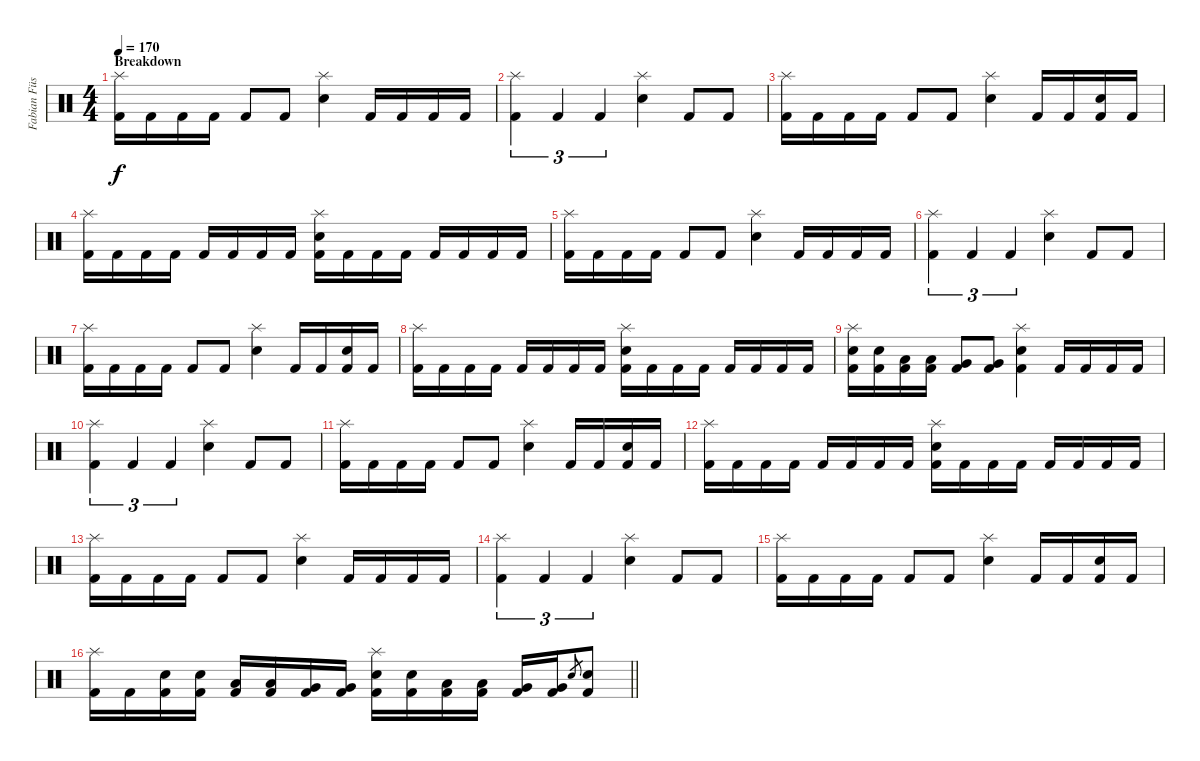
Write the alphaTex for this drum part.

\track ("Fabian Füss" "Fabian Füs") {instrument percussion}
\staff {score}
\articulation defaults
\ts (4 4)
\section ("" "Breakdown")
\tempo 170
\clef neutral
\ks c
("Splash (hit)" "Kick (hit) 2").16{dy f} "Kick (hit) 2".16 "Kick (hit) 2".16 "Kick (hit) 2".16 "Kick (hit) 2".8 "Kick (hit) 2".8 ("Splash (hit)" "Snare (hit) 2").4 "Kick (hit) 2".16 "Kick (hit) 2".16 "Kick (hit) 2".16 "Kick (hit) 2".16 |
("Splash (hit)" "Kick (hit) 2").4{tu (3 2)} "Kick (hit) 2".4{tu (3 2)} "Kick (hit) 2".4{tu (3 2)} ("Splash (hit)" "Snare (hit) 2").4 "Kick (hit) 2".8 "Kick (hit) 2".8 |
("Splash (hit)" "Kick (hit) 2").16 "Kick (hit) 2".16 "Kick (hit) 2".16 "Kick (hit) 2".16 "Kick (hit) 2".8 "Kick (hit) 2".8 ("Splash (hit)" "Snare (hit) 2").4 "Kick (hit) 2".16 "Kick (hit) 2".16 ("Snare (hit) 2" "Kick (hit) 2").16 "Kick (hit) 2".16 |
("Splash (hit)" "Kick (hit) 2").16 "Kick (hit) 2".16 "Kick (hit) 2".16 "Kick (hit) 2".16 "Kick (hit) 2".16 "Kick (hit) 2".16 "Kick (hit) 2".16 "Kick (hit) 2".16 ("Splash (hit)" "Snare (hit) 2" "Kick (hit) 2").16 "Kick (hit) 2".16 "Kick (hit) 2".16 "Kick (hit) 2".16 "Kick (hit) 2".16 "Kick (hit) 2".16 "Kick (hit) 2".16 "Kick (hit) 2".16 |
("Splash (hit)" "Kick (hit) 2").16 "Kick (hit) 2".16 "Kick (hit) 2".16 "Kick (hit) 2".16 "Kick (hit) 2".8 "Kick (hit) 2".8 ("Splash (hit)" "Snare (hit) 2").4 "Kick (hit) 2".16 "Kick (hit) 2".16 "Kick (hit) 2".16 "Kick (hit) 2".16 |
("Splash (hit)" "Kick (hit) 2").4{tu (3 2)} "Kick (hit) 2".4{tu (3 2)} "Kick (hit) 2".4{tu (3 2)} ("Splash (hit)" "Snare (hit) 2").4 "Kick (hit) 2".8 "Kick (hit) 2".8 |
("Splash (hit)" "Kick (hit) 2").16 "Kick (hit) 2".16 "Kick (hit) 2".16 "Kick (hit) 2".16 "Kick (hit) 2".8 "Kick (hit) 2".8 ("Splash (hit)" "Snare (hit) 2").4 "Kick (hit) 2".16 "Kick (hit) 2".16 ("Snare (hit) 2" "Kick (hit) 2").16 "Kick (hit) 2".16 |
("Splash (hit)" "Kick (hit) 2").16 "Kick (hit) 2".16 "Kick (hit) 2".16 "Kick (hit) 2".16 "Kick (hit) 2".16 "Kick (hit) 2".16 "Kick (hit) 2".16 "Kick (hit) 2".16 ("Splash (hit)" "Snare (hit) 2" "Kick (hit) 2").16 "Kick (hit) 2".16 "Kick (hit) 2".16 "Kick (hit) 2".16 "Kick (hit) 2".16 "Kick (hit) 2".16 "Kick (hit) 2".16 "Kick (hit) 2".16 |
("Splash (hit)" "Snare (hit) 2" "Kick (hit) 2").16 ("Snare (hit) 2" "Kick (hit) 2").16 ("Low Tom (hit)" "Kick (hit) 2").16 ("Low Tom (hit)" "Kick (hit) 2").16 ("Very Low Tom (hit)" "Kick (hit) 2").8 ("Very Low Tom (hit)" "Kick (hit) 2").8 ("Splash (hit)" "Snare (hit) 2" "Kick (hit) 2").4 "Kick (hit) 2".16 "Kick (hit) 2".16 "Kick (hit) 2".16 "Kick (hit) 2".16 |
("Splash (hit)" "Kick (hit) 2").4{tu (3 2)} "Kick (hit) 2".4{tu (3 2)} "Kick (hit) 2".4{tu (3 2)} ("Splash (hit)" "Snare (hit) 2").4 "Kick (hit) 2".8 "Kick (hit) 2".8 |
("Splash (hit)" "Kick (hit) 2").16 "Kick (hit) 2".16 "Kick (hit) 2".16 "Kick (hit) 2".16 "Kick (hit) 2".8 "Kick (hit) 2".8 ("Splash (hit)" "Snare (hit) 2").4 "Kick (hit) 2".16 "Kick (hit) 2".16 ("Snare (hit) 2" "Kick (hit) 2").16 "Kick (hit) 2".16 |
("Splash (hit)" "Kick (hit) 2").16 "Kick (hit) 2".16 "Kick (hit) 2".16 "Kick (hit) 2".16 "Kick (hit) 2".16 "Kick (hit) 2".16 "Kick (hit) 2".16 "Kick (hit) 2".16 ("Splash (hit)" "Snare (hit) 2" "Kick (hit) 2").16 "Kick (hit) 2".16 "Kick (hit) 2".16 "Kick (hit) 2".16 "Kick (hit) 2".16 "Kick (hit) 2".16 "Kick (hit) 2".16 "Kick (hit) 2".16 |
("Splash (hit)" "Kick (hit) 2").16 "Kick (hit) 2".16 "Kick (hit) 2".16 "Kick (hit) 2".16 "Kick (hit) 2".8 "Kick (hit) 2".8 ("Splash (hit)" "Snare (hit) 2").4 "Kick (hit) 2".16 "Kick (hit) 2".16 "Kick (hit) 2".16 "Kick (hit) 2".16 |
("Splash (hit)" "Kick (hit) 2").4{tu (3 2)} "Kick (hit) 2".4{tu (3 2)} "Kick (hit) 2".4{tu (3 2)} ("Splash (hit)" "Snare (hit) 2").4 "Kick (hit) 2".8 "Kick (hit) 2".8 |
("Splash (hit)" "Kick (hit) 2").16 "Kick (hit) 2".16 "Kick (hit) 2".16 "Kick (hit) 2".16 "Kick (hit) 2".8 "Kick (hit) 2".8 ("Splash (hit)" "Snare (hit) 2").4 "Kick (hit) 2".16 "Kick (hit) 2".16 ("Snare (hit) 2" "Kick (hit) 2").16 "Kick (hit) 2".16 |
\barLineRight lightlight
("Splash (hit)" "Kick (hit) 2").16 "Kick (hit) 2".16 ("Snare (hit) 2" "Kick (hit) 2").16 ("Snare (hit) 2" "Kick (hit) 2").16 ("Low Tom (hit)" "Kick (hit) 2").16 ("Low Tom (hit)" "Kick (hit) 2").16 ("Very Low Tom (hit)" "Kick (hit) 2").16 ("Very Low Tom (hit)" "Kick (hit) 2").16 ("Splash (hit)" "Snare (hit) 2" "Kick (hit) 2").16 ("Snare (hit) 2" "Kick (hit) 2").16 ("Low Tom (hit)" "Kick (hit) 2").16 ("Low Tom (hit)" "Kick (hit) 2").16 ("Very Low Tom (hit)" "Kick (hit) 2").16 ("Very Low Tom (hit)" "Kick (hit) 2").16 "Snare (hit) 2".8{gr} ("Snare (hit) 2" "Kick (hit) 2").8
